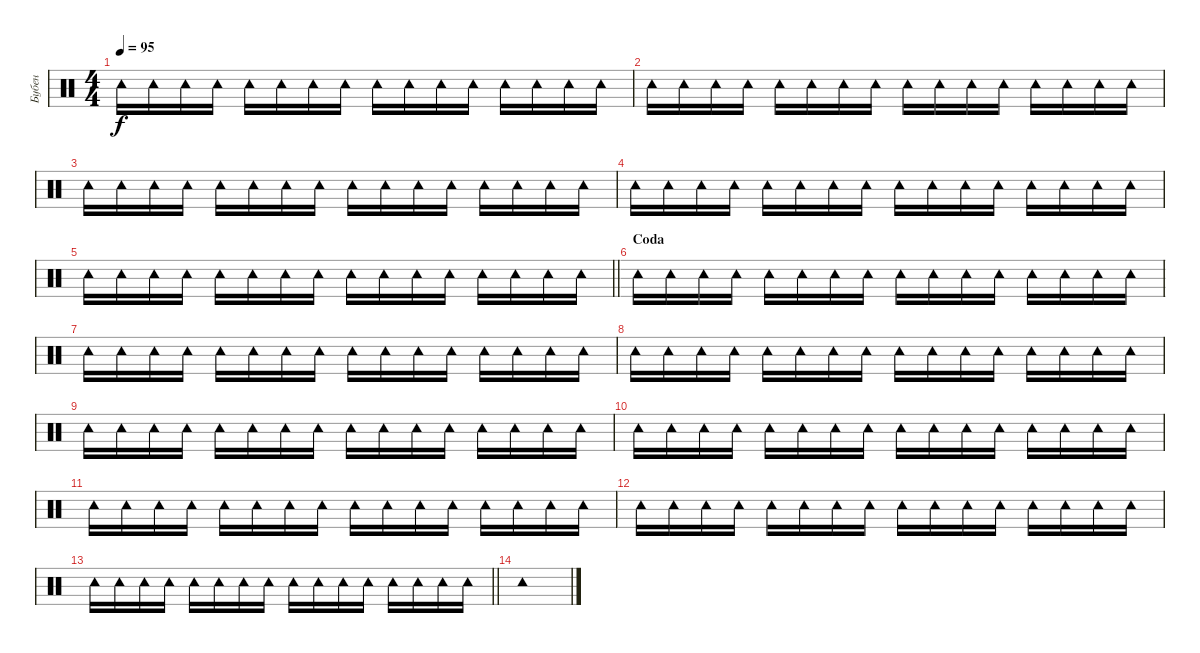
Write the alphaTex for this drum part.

\track ("Бубен" "Бубен") {instrument percussion}
\staff {score}
\articulation defaults
\ts (4 4)
\tempo 95
\clef neutral
\ks c "Tambourine (hit)".16{dy f} "Tambourine (hit)".16 "Tambourine (hit)".16 "Tambourine (hit)".16 "Tambourine (hit)".16 "Tambourine (hit)".16 "Tambourine (hit)".16 "Tambourine (hit)".16 "Tambourine (hit)".16 "Tambourine (hit)".16 "Tambourine (hit)".16 "Tambourine (hit)".16 "Tambourine (hit)".16 "Tambourine (hit)".16 "Tambourine (hit)".16 "Tambourine (hit)".16
|
"Tambourine (hit)".16 "Tambourine (hit)".16 "Tambourine (hit)".16 "Tambourine (hit)".16 "Tambourine (hit)".16 "Tambourine (hit)".16 "Tambourine (hit)".16 "Tambourine (hit)".16 "Tambourine (hit)".16 "Tambourine (hit)".16 "Tambourine (hit)".16 "Tambourine (hit)".16 "Tambourine (hit)".16 "Tambourine (hit)".16 "Tambourine (hit)".16 "Tambourine (hit)".16 |
"Tambourine (hit)".16 "Tambourine (hit)".16 "Tambourine (hit)".16 "Tambourine (hit)".16 "Tambourine (hit)".16 "Tambourine (hit)".16 "Tambourine (hit)".16 "Tambourine (hit)".16 "Tambourine (hit)".16 "Tambourine (hit)".16 "Tambourine (hit)".16 "Tambourine (hit)".16 "Tambourine (hit)".16 "Tambourine (hit)".16 "Tambourine (hit)".16 "Tambourine (hit)".16 |
"Tambourine (hit)".16 "Tambourine (hit)".16 "Tambourine (hit)".16 "Tambourine (hit)".16 "Tambourine (hit)".16 "Tambourine (hit)".16 "Tambourine (hit)".16 "Tambourine (hit)".16 "Tambourine (hit)".16 "Tambourine (hit)".16 "Tambourine (hit)".16 "Tambourine (hit)".16 "Tambourine (hit)".16 "Tambourine (hit)".16 "Tambourine (hit)".16 "Tambourine (hit)".16 |
\barLineRight lightlight "Tambourine (hit)".16 "Tambourine (hit)".16 "Tambourine (hit)".16 "Tambourine (hit)".16 "Tambourine (hit)".16 "Tambourine (hit)".16 "Tambourine (hit)".16 "Tambourine (hit)".16 "Tambourine (hit)".16 "Tambourine (hit)".16 "Tambourine (hit)".16 "Tambourine (hit)".16 "Tambourine (hit)".16 "Tambourine (hit)".16 "Tambourine (hit)".16 "Tambourine (hit)".16
|
\section ("" "Coda")
"Tambourine (hit)".16 "Tambourine (hit)".16 "Tambourine (hit)".16 "Tambourine (hit)".16 "Tambourine (hit)".16 "Tambourine (hit)".16 "Tambourine (hit)".16 "Tambourine (hit)".16 "Tambourine (hit)".16 "Tambourine (hit)".16 "Tambourine (hit)".16 "Tambourine (hit)".16 "Tambourine (hit)".16 "Tambourine (hit)".16 "Tambourine (hit)".16 "Tambourine (hit)".16 |
"Tambourine (hit)".16 "Tambourine (hit)".16 "Tambourine (hit)".16 "Tambourine (hit)".16 "Tambourine (hit)".16 "Tambourine (hit)".16 "Tambourine (hit)".16 "Tambourine (hit)".16 "Tambourine (hit)".16 "Tambourine (hit)".16 "Tambourine (hit)".16 "Tambourine (hit)".16 "Tambourine (hit)".16 "Tambourine (hit)".16 "Tambourine (hit)".16 "Tambourine (hit)".16 |
"Tambourine (hit)".16 "Tambourine (hit)".16 "Tambourine (hit)".16 "Tambourine (hit)".16 "Tambourine (hit)".16 "Tambourine (hit)".16 "Tambourine (hit)".16 "Tambourine (hit)".16 "Tambourine (hit)".16 "Tambourine (hit)".16 "Tambourine (hit)".16 "Tambourine (hit)".16 "Tambourine (hit)".16 "Tambourine (hit)".16 "Tambourine (hit)".16 "Tambourine (hit)".16 |
"Tambourine (hit)".16 "Tambourine (hit)".16 "Tambourine (hit)".16 "Tambourine (hit)".16 "Tambourine (hit)".16 "Tambourine (hit)".16 "Tambourine (hit)".16 "Tambourine (hit)".16 "Tambourine (hit)".16 "Tambourine (hit)".16 "Tambourine (hit)".16 "Tambourine (hit)".16 "Tambourine (hit)".16 "Tambourine (hit)".16 "Tambourine (hit)".16 "Tambourine (hit)".16 |
"Tambourine (hit)".16 "Tambourine (hit)".16 "Tambourine (hit)".16 "Tambourine (hit)".16 "Tambourine (hit)".16 "Tambourine (hit)".16 "Tambourine (hit)".16 "Tambourine (hit)".16 "Tambourine (hit)".16 "Tambourine (hit)".16 "Tambourine (hit)".16 "Tambourine (hit)".16 "Tambourine (hit)".16 "Tambourine (hit)".16 "Tambourine (hit)".16 "Tambourine (hit)".16 |
"Tambourine (hit)".16 "Tambourine (hit)".16 "Tambourine (hit)".16 "Tambourine (hit)".16 "Tambourine (hit)".16 "Tambourine (hit)".16 "Tambourine (hit)".16 "Tambourine (hit)".16 "Tambourine (hit)".16 "Tambourine (hit)".16 "Tambourine (hit)".16 "Tambourine (hit)".16 "Tambourine (hit)".16 "Tambourine (hit)".16 "Tambourine (hit)".16 "Tambourine (hit)".16 |
"Tambourine (hit)".16 "Tambourine (hit)".16 "Tambourine (hit)".16 "Tambourine (hit)".16 "Tambourine (hit)".16 "Tambourine (hit)".16 "Tambourine (hit)".16 "Tambourine (hit)".16 "Tambourine (hit)".16 "Tambourine (hit)".16 "Tambourine (hit)".16 "Tambourine (hit)".16 "Tambourine (hit)".16 "Tambourine (hit)".16 "Tambourine (hit)".16 "Tambourine (hit)".16 |
\barLineRight lightlight "Tambourine (hit)".16 "Tambourine (hit)".16 "Tambourine (hit)".16 "Tambourine (hit)".16 "Tambourine (hit)".16 "Tambourine (hit)".16 "Tambourine (hit)".16 "Tambourine (hit)".16 "Tambourine (hit)".16 "Tambourine (hit)".16 "Tambourine (hit)".16 "Tambourine (hit)".16 "Tambourine (hit)".16 "Tambourine (hit)".16 "Tambourine (hit)".16 "Tambourine (hit)".16
|
"Tambourine (hit)".1
